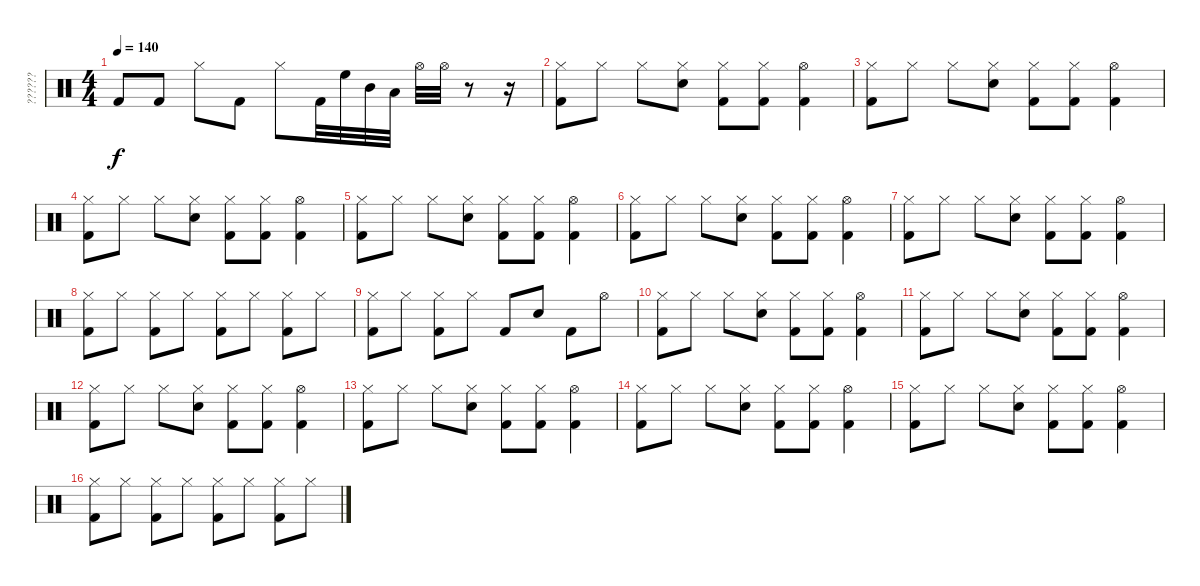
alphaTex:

\track ("??????" "??????") {instrument percussion}
\staff {score}
\articulation defaults
\ts (4 4)
\tempo 140
\clef neutral
\ks c "Kick (hit) 2".8{dy f} "Kick (hit) 2".8 "Hi-Hat (closed)".8 "Kick (hit) 2".8 "Hi-Hat (closed)".8 "Kick (hit) 2".32 "High Floor Tom (hit)".32 "Mid Tom (hit)".32 "Low Tom (hit)".32 "Hi-Hat (open)".32 "Hi-Hat (open)".32
r.8 r.16 |
("Hi-Hat (closed)" "Kick (hit) 2").8 "Hi-Hat (closed)".8 "Hi-Hat (closed)".8 ("Hi-Hat (closed)" "Snare (hit) 2").8 ("Hi-Hat (closed)" "Kick (hit) 2").8 ("Hi-Hat (closed)" "Kick (hit) 2").8 ("Hi-Hat (open)" "Kick (hit) 2").4 |
("Hi-Hat (closed)" "Kick (hit) 2").8 "Hi-Hat (closed)".8 "Hi-Hat (closed)".8 ("Hi-Hat (closed)" "Snare (hit) 2").8 ("Hi-Hat (closed)" "Kick (hit) 2").8 ("Hi-Hat (closed)" "Kick (hit) 2").8 ("Hi-Hat (open)" "Kick (hit) 2").4 |
("Hi-Hat (closed)" "Kick (hit) 2").8 "Hi-Hat (closed)".8 "Hi-Hat (closed)".8 ("Hi-Hat (closed)" "Snare (hit) 2").8 ("Hi-Hat (closed)" "Kick (hit) 2").8 ("Hi-Hat (closed)" "Kick (hit) 2").8 ("Hi-Hat (open)" "Kick (hit) 2").4 |
("Hi-Hat (closed)" "Kick (hit) 2").8 "Hi-Hat (closed)".8 "Hi-Hat (closed)".8 ("Hi-Hat (closed)" "Snare (hit) 2").8 ("Hi-Hat (closed)" "Kick (hit) 2").8 ("Hi-Hat (closed)" "Kick (hit) 2").8 ("Hi-Hat (open)" "Kick (hit) 2").4 |
("Hi-Hat (closed)" "Kick (hit) 2").8 "Hi-Hat (closed)".8 "Hi-Hat (closed)".8 ("Hi-Hat (closed)" "Snare (hit) 2").8 ("Hi-Hat (closed)" "Kick (hit) 2").8 ("Hi-Hat (closed)" "Kick (hit) 2").8 ("Hi-Hat (open)" "Kick (hit) 2").4 |
("Hi-Hat (closed)" "Kick (hit) 2").8 "Hi-Hat (closed)".8 "Hi-Hat (closed)".8 ("Hi-Hat (closed)" "Snare (hit) 2").8 ("Hi-Hat (closed)" "Kick (hit) 2").8 ("Hi-Hat (closed)" "Kick (hit) 2").8 ("Hi-Hat (open)" "Kick (hit) 2").4 |
("Hi-Hat (closed)" "Kick (hit) 2").8 "Hi-Hat (closed)".8 ("Hi-Hat (closed)" "Kick (hit) 2").8 "Hi-Hat (closed)".8 ("Hi-Hat (closed)" "Kick (hit) 2").8 "Hi-Hat (closed)".8 ("Hi-Hat (closed)" "Kick (hit) 2").8 "Hi-Hat (closed)".8 |
("Hi-Hat (closed)" "Kick (hit) 2").8 "Hi-Hat (closed)".8 ("Hi-Hat (closed)" "Kick (hit) 2").8 "Hi-Hat (closed)".8 "Kick (hit) 2".8 "Snare (hit) 2".8 "Kick (hit) 2".8 "Hi-Hat (open)".8 |
("Hi-Hat (closed)" "Kick (hit) 2").8 "Hi-Hat (closed)".8 "Hi-Hat (closed)".8 ("Hi-Hat (closed)" "Snare (hit) 2").8 ("Hi-Hat (closed)" "Kick (hit) 2").8 ("Hi-Hat (closed)" "Kick (hit) 2").8 ("Hi-Hat (open)" "Kick (hit) 2").4 |
("Hi-Hat (closed)" "Kick (hit) 2").8 "Hi-Hat (closed)".8 "Hi-Hat (closed)".8 ("Hi-Hat (closed)" "Snare (hit) 2").8 ("Hi-Hat (closed)" "Kick (hit) 2").8 ("Hi-Hat (closed)" "Kick (hit) 2").8 ("Hi-Hat (open)" "Kick (hit) 2").4 |
("Hi-Hat (closed)" "Kick (hit) 2").8 "Hi-Hat (closed)".8 "Hi-Hat (closed)".8 ("Hi-Hat (closed)" "Snare (hit) 2").8 ("Hi-Hat (closed)" "Kick (hit) 2").8 ("Hi-Hat (closed)" "Kick (hit) 2").8 ("Hi-Hat (open)" "Kick (hit) 2").4 |
("Hi-Hat (closed)" "Kick (hit) 2").8 "Hi-Hat (closed)".8 "Hi-Hat (closed)".8 ("Hi-Hat (closed)" "Snare (hit) 2").8 ("Hi-Hat (closed)" "Kick (hit) 2").8 ("Hi-Hat (closed)" "Kick (hit) 2").8 ("Hi-Hat (open)" "Kick (hit) 2").4 |
("Hi-Hat (closed)" "Kick (hit) 2").8 "Hi-Hat (closed)".8 "Hi-Hat (closed)".8 ("Hi-Hat (closed)" "Snare (hit) 2").8 ("Hi-Hat (closed)" "Kick (hit) 2").8 ("Hi-Hat (closed)" "Kick (hit) 2").8 ("Hi-Hat (open)" "Kick (hit) 2").4 |
("Hi-Hat (closed)" "Kick (hit) 2").8 "Hi-Hat (closed)".8 "Hi-Hat (closed)".8 ("Hi-Hat (closed)" "Snare (hit) 2").8 ("Hi-Hat (closed)" "Kick (hit) 2").8 ("Hi-Hat (closed)" "Kick (hit) 2").8 ("Hi-Hat (open)" "Kick (hit) 2").4 |
("Hi-Hat (closed)" "Kick (hit) 2").8 "Hi-Hat (closed)".8 ("Hi-Hat (closed)" "Kick (hit) 2").8 "Hi-Hat (closed)".8 ("Hi-Hat (closed)" "Kick (hit) 2").8 "Hi-Hat (closed)".8 ("Hi-Hat (closed)" "Kick (hit) 2").8 "Hi-Hat (closed)".8
